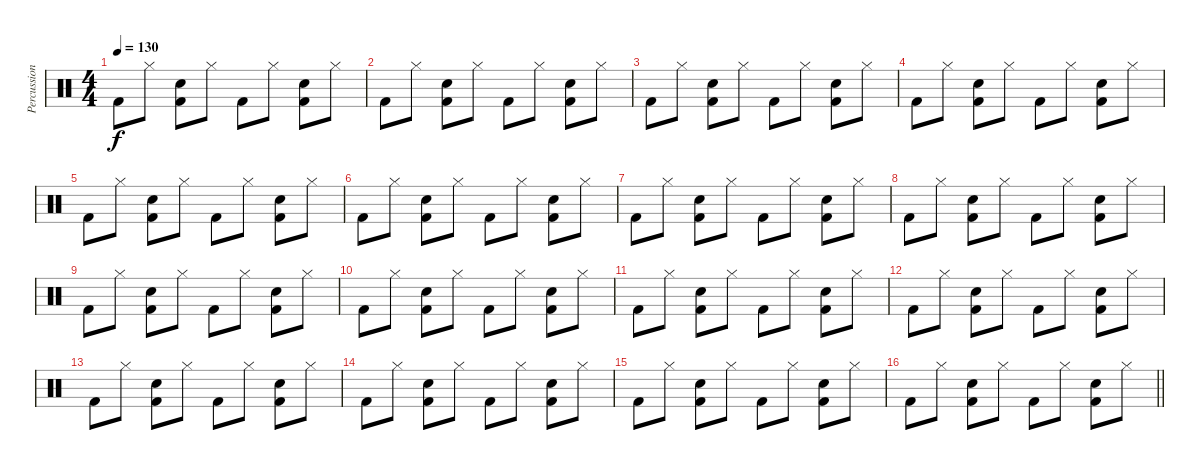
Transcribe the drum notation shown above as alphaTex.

\track ("Percussion" "Percussion") {instrument percussion}
\staff {score}
\articulation defaults
\ts (4 4)
\tempo 130
\clef neutral
\ks c "Kick (hit) 2".8{dy f} "Hi-Hat (closed)".8
("Electric Snare (hit)" "Kick (hit) 2").8 "Hi-Hat (closed)".8 "Kick (hit) 2".8 "Hi-Hat (closed)".8 ("Electric Snare (hit)" "Kick (hit) 2").8 "Hi-Hat (closed)".8 |
"Kick (hit) 2".8 "Hi-Hat (closed)".8 ("Electric Snare (hit)" "Kick (hit) 2").8 "Hi-Hat (closed)".8 "Kick (hit) 2".8 "Hi-Hat (closed)".8 ("Electric Snare (hit)" "Kick (hit) 2").8 "Hi-Hat (closed)".8 |
"Kick (hit) 2".8 "Hi-Hat (closed)".8 ("Electric Snare (hit)" "Kick (hit) 2").8 "Hi-Hat (closed)".8 "Kick (hit) 2".8 "Hi-Hat (closed)".8 ("Electric Snare (hit)" "Kick (hit) 2").8 "Hi-Hat (closed)".8 |
"Kick (hit) 2".8 "Hi-Hat (closed)".8 ("Electric Snare (hit)" "Kick (hit) 2").8 "Hi-Hat (closed)".8 "Kick (hit) 2".8 "Hi-Hat (closed)".8 ("Electric Snare (hit)" "Kick (hit) 2").8 "Hi-Hat (closed)".8 |
"Kick (hit) 2".8 "Hi-Hat (closed)".8 ("Electric Snare (hit)" "Kick (hit) 2").8 "Hi-Hat (closed)".8 "Kick (hit) 2".8 "Hi-Hat (closed)".8 ("Electric Snare (hit)" "Kick (hit) 2").8 "Hi-Hat (closed)".8 |
"Kick (hit) 2".8 "Hi-Hat (closed)".8 ("Electric Snare (hit)" "Kick (hit) 2").8 "Hi-Hat (closed)".8 "Kick (hit) 2".8 "Hi-Hat (closed)".8 ("Electric Snare (hit)" "Kick (hit) 2").8 "Hi-Hat (closed)".8 |
"Kick (hit) 2".8 "Hi-Hat (closed)".8 ("Electric Snare (hit)" "Kick (hit) 2").8 "Hi-Hat (closed)".8 "Kick (hit) 2".8 "Hi-Hat (closed)".8 ("Electric Snare (hit)" "Kick (hit) 2").8 "Hi-Hat (closed)".8 |
"Kick (hit) 2".8 "Hi-Hat (closed)".8 ("Electric Snare (hit)" "Kick (hit) 2").8 "Hi-Hat (closed)".8 "Kick (hit) 2".8 "Hi-Hat (closed)".8 ("Electric Snare (hit)" "Kick (hit) 2").8 "Hi-Hat (closed)".8 |
"Kick (hit) 2".8 "Hi-Hat (closed)".8 ("Electric Snare (hit)" "Kick (hit) 2").8 "Hi-Hat (closed)".8 "Kick (hit) 2".8 "Hi-Hat (closed)".8 ("Electric Snare (hit)" "Kick (hit) 2").8 "Hi-Hat (closed)".8 |
"Kick (hit) 2".8 "Hi-Hat (closed)".8 ("Electric Snare (hit)" "Kick (hit) 2").8 "Hi-Hat (closed)".8 "Kick (hit) 2".8 "Hi-Hat (closed)".8 ("Electric Snare (hit)" "Kick (hit) 2").8 "Hi-Hat (closed)".8 |
"Kick (hit) 2".8 "Hi-Hat (closed)".8 ("Electric Snare (hit)" "Kick (hit) 2").8 "Hi-Hat (closed)".8 "Kick (hit) 2".8 "Hi-Hat (closed)".8 ("Electric Snare (hit)" "Kick (hit) 2").8 "Hi-Hat (closed)".8 |
"Kick (hit) 2".8 "Hi-Hat (closed)".8 ("Electric Snare (hit)" "Kick (hit) 2").8 "Hi-Hat (closed)".8 "Kick (hit) 2".8 "Hi-Hat (closed)".8 ("Electric Snare (hit)" "Kick (hit) 2").8 "Hi-Hat (closed)".8 |
"Kick (hit) 2".8 "Hi-Hat (closed)".8 ("Electric Snare (hit)" "Kick (hit) 2").8 "Hi-Hat (closed)".8 "Kick (hit) 2".8 "Hi-Hat (closed)".8 ("Electric Snare (hit)" "Kick (hit) 2").8 "Hi-Hat (closed)".8 |
"Kick (hit) 2".8 "Hi-Hat (closed)".8 ("Electric Snare (hit)" "Kick (hit) 2").8 "Hi-Hat (closed)".8 "Kick (hit) 2".8 "Hi-Hat (closed)".8 ("Electric Snare (hit)" "Kick (hit) 2").8 "Hi-Hat (closed)".8 |
"Kick (hit) 2".8 "Hi-Hat (closed)".8 ("Electric Snare (hit)" "Kick (hit) 2").8 "Hi-Hat (closed)".8 "Kick (hit) 2".8 "Hi-Hat (closed)".8 ("Electric Snare (hit)" "Kick (hit) 2").8 "Hi-Hat (closed)".8 |
\barLineRight lightlight "Kick (hit) 2".8 "Hi-Hat (closed)".8
("Electric Snare (hit)" "Kick (hit) 2").8 "Hi-Hat (closed)".8 "Kick (hit) 2".8 "Hi-Hat (closed)".8 ("Electric Snare (hit)" "Kick (hit) 2").8 "Hi-Hat (closed)".8
